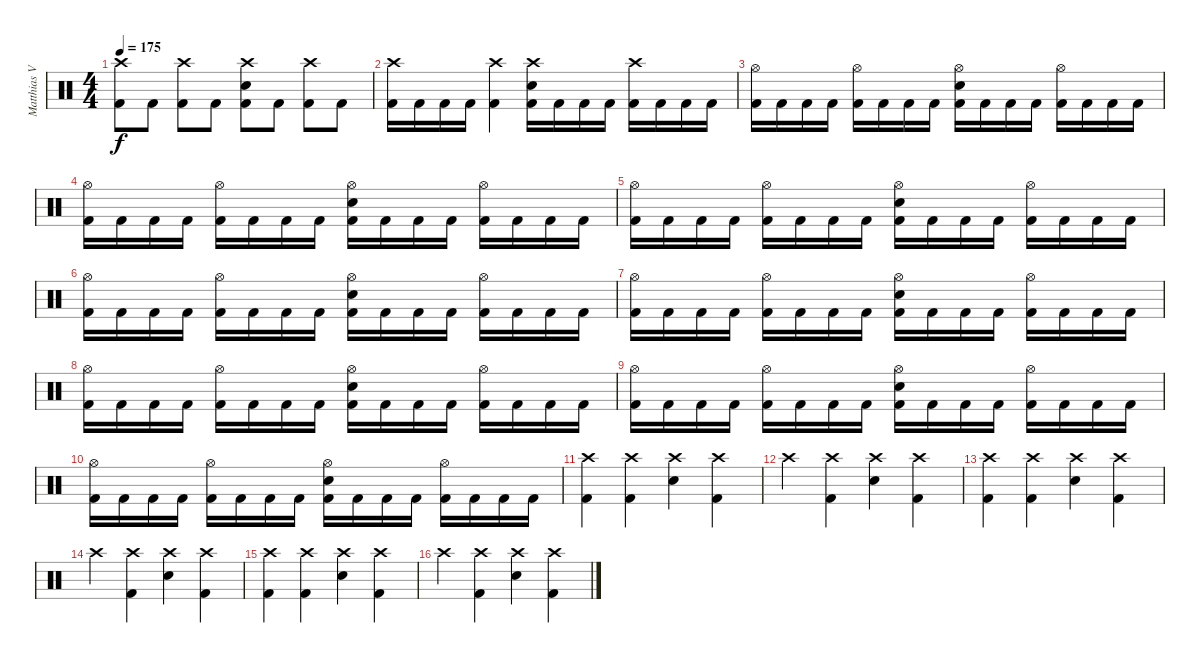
\track ("Matthias Voigt" "Matthias V") {instrument percussion}
\staff {score}
\articulation defaults
\ts (4 4)
\tempo 175
\clef neutral
\ks c
("Crash high (hit)" "Kick (hit) 2").8{dy f} "Kick (hit) 2".8 ("Crash high (hit)" "Kick (hit) 2").8 "Kick (hit) 2".8 ("Crash high (hit)" "Electric Snare (hit)" "Kick (hit) 2").8 "Kick (hit) 2".8 ("Crash high (hit)" "Kick (hit) 2").8 "Kick (hit) 2".8 |
("Crash high (hit)" "Kick (hit) 2").16 "Kick (hit) 2".16 "Kick (hit) 2".16 "Kick (hit) 2".16 ("Crash high (hit)" "Kick (hit) 2").4 ("Crash high (hit)" "Electric Snare (hit)" "Kick (hit) 2").16 "Kick (hit) 2".16 "Kick (hit) 2".16 "Kick (hit) 2".16 ("Crash high (hit)" "Kick (hit) 2").16 "Kick (hit) 2".16 "Kick (hit) 2".16 "Kick (hit) 2".16 |
("Hi-Hat (open)" "Kick (hit) 2").16 "Kick (hit) 2".16 "Kick (hit) 2".16 "Kick (hit) 2".16 ("Hi-Hat (open)" "Kick (hit) 2").16 "Kick (hit) 2".16 "Kick (hit) 2".16 "Kick (hit) 2".16 ("Hi-Hat (open)" "Electric Snare (hit)" "Kick (hit) 2").16 "Kick (hit) 2".16 "Kick (hit) 2".16 "Kick (hit) 2".16 ("Hi-Hat (open)" "Kick (hit) 2").16 "Kick (hit) 2".16 "Kick (hit) 2".16 "Kick (hit) 2".16 |
("Hi-Hat (open)" "Kick (hit) 2").16 "Kick (hit) 2".16 "Kick (hit) 2".16 "Kick (hit) 2".16 ("Hi-Hat (open)" "Kick (hit) 2").16 "Kick (hit) 2".16 "Kick (hit) 2".16 "Kick (hit) 2".16 ("Hi-Hat (open)" "Electric Snare (hit)" "Kick (hit) 2").16 "Kick (hit) 2".16 "Kick (hit) 2".16 "Kick (hit) 2".16 ("Hi-Hat (open)" "Kick (hit) 2").16 "Kick (hit) 2".16 "Kick (hit) 2".16 "Kick (hit) 2".16 |
("Hi-Hat (open)" "Kick (hit) 2").16 "Kick (hit) 2".16 "Kick (hit) 2".16 "Kick (hit) 2".16 ("Hi-Hat (open)" "Kick (hit) 2").16 "Kick (hit) 2".16 "Kick (hit) 2".16 "Kick (hit) 2".16 ("Hi-Hat (open)" "Electric Snare (hit)" "Kick (hit) 2").16 "Kick (hit) 2".16 "Kick (hit) 2".16 "Kick (hit) 2".16 ("Hi-Hat (open)" "Kick (hit) 2").16 "Kick (hit) 2".16 "Kick (hit) 2".16 "Kick (hit) 2".16 |
("Hi-Hat (open)" "Kick (hit) 2").16 "Kick (hit) 2".16 "Kick (hit) 2".16 "Kick (hit) 2".16 ("Hi-Hat (open)" "Kick (hit) 2").16 "Kick (hit) 2".16 "Kick (hit) 2".16 "Kick (hit) 2".16 ("Hi-Hat (open)" "Electric Snare (hit)" "Kick (hit) 2").16 "Kick (hit) 2".16 "Kick (hit) 2".16 "Kick (hit) 2".16 ("Hi-Hat (open)" "Kick (hit) 2").16 "Kick (hit) 2".16 "Kick (hit) 2".16 "Kick (hit) 2".16 |
("Hi-Hat (open)" "Kick (hit) 2").16 "Kick (hit) 2".16 "Kick (hit) 2".16 "Kick (hit) 2".16 ("Hi-Hat (open)" "Kick (hit) 2").16 "Kick (hit) 2".16 "Kick (hit) 2".16 "Kick (hit) 2".16 ("Hi-Hat (open)" "Electric Snare (hit)" "Kick (hit) 2").16 "Kick (hit) 2".16 "Kick (hit) 2".16 "Kick (hit) 2".16 ("Hi-Hat (open)" "Kick (hit) 2").16 "Kick (hit) 2".16 "Kick (hit) 2".16 "Kick (hit) 2".16 |
("Hi-Hat (open)" "Kick (hit) 2").16 "Kick (hit) 2".16 "Kick (hit) 2".16 "Kick (hit) 2".16 ("Hi-Hat (open)" "Kick (hit) 2").16 "Kick (hit) 2".16 "Kick (hit) 2".16 "Kick (hit) 2".16 ("Hi-Hat (open)" "Electric Snare (hit)" "Kick (hit) 2").16 "Kick (hit) 2".16 "Kick (hit) 2".16 "Kick (hit) 2".16 ("Hi-Hat (open)" "Kick (hit) 2").16 "Kick (hit) 2".16 "Kick (hit) 2".16 "Kick (hit) 2".16 |
("Hi-Hat (open)" "Kick (hit) 2").16 "Kick (hit) 2".16 "Kick (hit) 2".16 "Kick (hit) 2".16 ("Hi-Hat (open)" "Kick (hit) 2").16 "Kick (hit) 2".16 "Kick (hit) 2".16 "Kick (hit) 2".16 ("Hi-Hat (open)" "Electric Snare (hit)" "Kick (hit) 2").16 "Kick (hit) 2".16 "Kick (hit) 2".16 "Kick (hit) 2".16 ("Hi-Hat (open)" "Kick (hit) 2").16 "Kick (hit) 2".16 "Kick (hit) 2".16 "Kick (hit) 2".16 |
("Hi-Hat (open)" "Kick (hit) 2").16 "Kick (hit) 2".16 "Kick (hit) 2".16 "Kick (hit) 2".16 ("Hi-Hat (open)" "Kick (hit) 2").16 "Kick (hit) 2".16 "Kick (hit) 2".16 "Kick (hit) 2".16 ("Hi-Hat (open)" "Electric Snare (hit)" "Kick (hit) 2").16 "Kick (hit) 2".16 "Kick (hit) 2".16 "Kick (hit) 2".16 ("Hi-Hat (open)" "Kick (hit) 2").16 "Kick (hit) 2".16 "Kick (hit) 2".16 "Kick (hit) 2".16 |
("Crash high (hit)" "Kick (hit) 2").4 ("Crash high (hit)" "Kick (hit) 2").4 ("Crash high (hit)" "Electric Snare (hit)").4 ("Crash high (hit)" "Kick (hit) 2").4 |
"Crash high (hit)".4 ("Crash high (hit)" "Kick (hit) 2").4 ("Crash high (hit)" "Electric Snare (hit)").4 ("Crash high (hit)" "Kick (hit) 2").4 |
("Crash high (hit)" "Kick (hit) 2").4 ("Crash high (hit)" "Kick (hit) 2").4 ("Crash high (hit)" "Electric Snare (hit)").4 ("Crash high (hit)" "Kick (hit) 2").4 |
"Crash high (hit)".4 ("Crash high (hit)" "Kick (hit) 2").4 ("Crash high (hit)" "Electric Snare (hit)").4 ("Crash high (hit)" "Kick (hit) 2").4 |
("Crash high (hit)" "Kick (hit) 2").4 ("Crash high (hit)" "Kick (hit) 2").4 ("Crash high (hit)" "Electric Snare (hit)").4 ("Crash high (hit)" "Kick (hit) 2").4 |
"Crash high (hit)".4 ("Crash high (hit)" "Kick (hit) 2").4 ("Crash high (hit)" "Electric Snare (hit)").4 ("Crash high (hit)" "Kick (hit) 2").4
